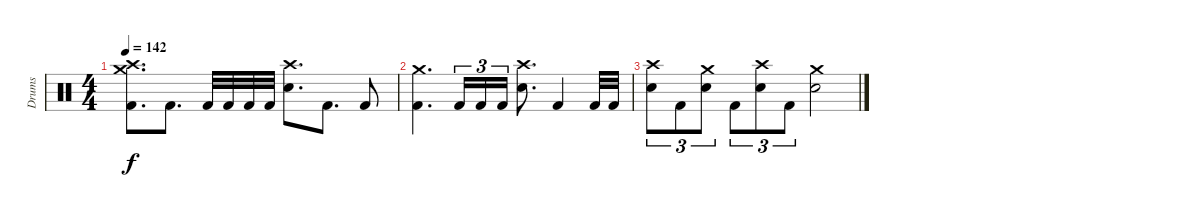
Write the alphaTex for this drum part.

\track ("Drums" "Drums") {instrument percussion}
\staff {score}
\articulation defaults
\ts (4 4)
\tempo 142
\clef neutral
\ks c
("Crash high (hit)" "Crash medium (hit)" "Kick (hit) 2").8{d dy f} "Kick (hit) 2".8{d} "Kick (hit) 2".32 "Kick (hit) 2".32 "Kick (hit) 2".32 "Kick (hit) 2".32 ("Crash high (hit)" "Snare (hit) 2").8{d} "Kick (hit) 2".8{d} "Kick (hit) 2".8 |
("Crash medium (hit)" "Kick (hit) 2").4{d} "Kick (hit) 2".16{tu (3 2)} "Kick (hit) 2".16{tu (3 2)} "Kick (hit) 2".16{tu (3 2)} ("Crash high (hit)" "Snare (hit) 2").8{d} "Kick (hit) 2".4 "Kick (hit) 2".32 "Kick (hit) 2".32 |
("Crash high (hit)" "Snare (hit) 2").8{tu (3 2)} "Kick (hit) 2".8{tu (3 2)} ("Crash medium (hit)" "Snare (hit) 2").8{tu (3 2)} "Kick (hit) 2".8{tu (3 2)} ("Crash high (hit)" "Snare (hit) 2").8{tu (3 2)} "Kick (hit) 2".8{tu (3 2)} ("Crash medium (hit)" "Snare (hit) 2").2
